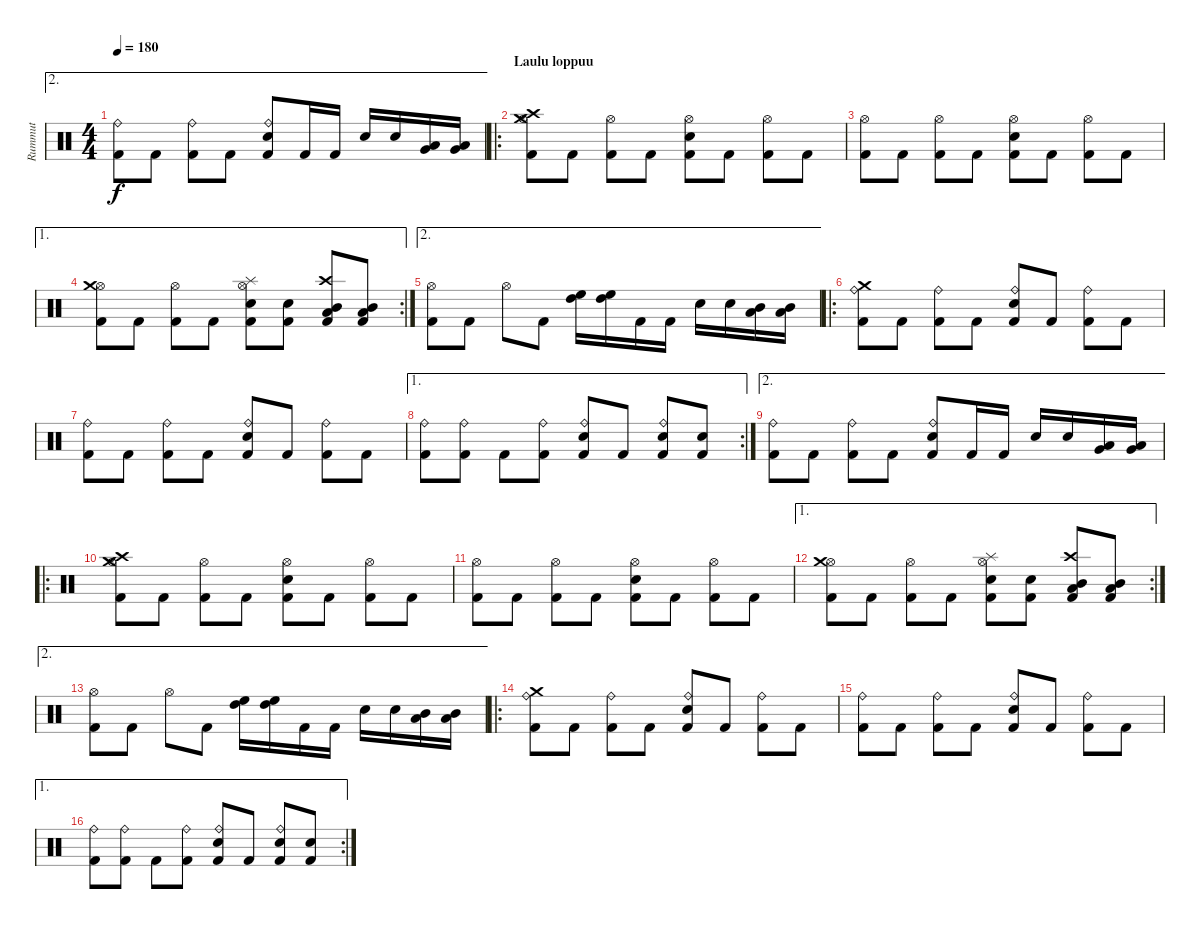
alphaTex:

\track ("Rummut" "Rummut") {instrument percussion}
\staff {score}
\articulation defaults
\ae 2
\ts (4 4)
\tempo 180
\clef neutral
\ks c
("Kick (hit) 2" "Ride (bell)").8{dy f} "Kick (hit) 2".8 ("Kick (hit) 2" "Ride (bell)").8 "Kick (hit) 2".8 ("Kick (hit) 2" "Snare (hit) 2" "Ride (bell)").8 "Kick (hit) 2".16 "Kick (hit) 2".16 "Snare (hit) 2".16 "Snare (hit) 2".16 ("Low Tom (hit)" "Very Low Tom (hit)").16 ("Low Tom (hit)" "Very Low Tom (hit)").16 |
\ro
\section ("" "Laulu loppuu")
("Kick (hit) 2" "Hi-Hat (open)" "Crash medium (hit)" "Crash high (hit)").8 "Kick (hit) 2".8 ("Kick (hit) 2" "Hi-Hat (open)").8 "Kick (hit) 2".8 ("Kick (hit) 2" "Snare (hit) 2" "Hi-Hat (open)").8 "Kick (hit) 2".8 ("Kick (hit) 2" "Hi-Hat (open)").8 "Kick (hit) 2".8 |
("Kick (hit) 2" "Hi-Hat (open)").8 "Kick (hit) 2".8 ("Kick (hit) 2" "Hi-Hat (open)").8 "Kick (hit) 2".8 ("Kick (hit) 2" "Snare (hit) 2" "Hi-Hat (open)").8 "Kick (hit) 2".8 ("Kick (hit) 2" "Hi-Hat (open)").8 "Kick (hit) 2".8 |
\ae 1
\rc 2
("Kick (hit) 2" "Hi-Hat (open)" "Crash medium (hit)").8 "Kick (hit) 2".8 ("Kick (hit) 2" "Hi-Hat (open)").8 "Kick (hit) 2".8 ("Kick (hit) 2" "Snare (hit) 2" "Hi-Hat (open)" "Splash (hit)").8 ("Kick (hit) 2" "Snare (hit) 2").8 ("Kick (hit) 2" "Mid Tom (hit)" "Low Tom (hit)" "Crash high (hit)").8 ("Kick (hit) 2" "Mid Tom (hit)" "Low Tom (hit)").8 |
\ae 2
("Kick (hit) 2" "Hi-Hat (open)").8 "Kick (hit) 2".8 "Hi-Hat (open)".8 "Kick (hit) 2".8 ("High Floor Tom (hit)" "High Tom (hit)").16 ("High Floor Tom (hit)" "High Tom (hit)").16 "Kick (hit) 2".16 "Kick (hit) 2".16 "Snare (hit) 2".16 "Snare (hit) 2".16 ("Mid Tom (hit)" "Low Tom (hit)").16 ("Mid Tom (hit)" "Low Tom (hit)").16 |
\ro
("Kick (hit) 2" "Ride (bell)" "Crash medium (hit)").8 "Kick (hit) 2".8 ("Kick (hit) 2" "Ride (bell)").8 "Kick (hit) 2".8 ("Kick (hit) 2" "Snare (hit) 2" "Ride (bell)").8 "Kick (hit) 2".8 ("Kick (hit) 2" "Ride (bell)").8 "Kick (hit) 2".8 |
("Kick (hit) 2" "Ride (bell)").8 "Kick (hit) 2".8 ("Kick (hit) 2" "Ride (bell)").8 "Kick (hit) 2".8 ("Kick (hit) 2" "Snare (hit) 2" "Ride (bell)").8 "Kick (hit) 2".8 ("Kick (hit) 2" "Ride (bell)").8 "Kick (hit) 2".8 |
\ae 1
\rc 2
("Kick (hit) 2" "Ride (bell)").8 ("Kick (hit) 2" "Ride (bell)").8 "Kick (hit) 2".8 ("Kick (hit) 2" "Ride (bell)").8 ("Kick (hit) 2" "Snare (hit) 2" "Ride (bell)").8 "Kick (hit) 2".8 ("Kick (hit) 2" "Snare (hit) 2" "Ride (bell)").8 ("Kick (hit) 2" "Snare (hit) 2").8 |
\ae 2
("Kick (hit) 2" "Ride (bell)").8 "Kick (hit) 2".8 ("Kick (hit) 2" "Ride (bell)").8 "Kick (hit) 2".8 ("Kick (hit) 2" "Snare (hit) 2" "Ride (bell)").8 "Kick (hit) 2".16 "Kick (hit) 2".16 "Snare (hit) 2".16 "Snare (hit) 2".16 ("Low Tom (hit)" "Very Low Tom (hit)").16 ("Low Tom (hit)" "Very Low Tom (hit)").16 |
\ro
("Kick (hit) 2" "Hi-Hat (open)" "Crash medium (hit)" "Crash high (hit)").8 "Kick (hit) 2".8 ("Kick (hit) 2" "Hi-Hat (open)").8 "Kick (hit) 2".8 ("Kick (hit) 2" "Snare (hit) 2" "Hi-Hat (open)").8 "Kick (hit) 2".8 ("Kick (hit) 2" "Hi-Hat (open)").8 "Kick (hit) 2".8 |
("Kick (hit) 2" "Hi-Hat (open)").8 "Kick (hit) 2".8 ("Kick (hit) 2" "Hi-Hat (open)").8 "Kick (hit) 2".8 ("Kick (hit) 2" "Snare (hit) 2" "Hi-Hat (open)").8 "Kick (hit) 2".8 ("Kick (hit) 2" "Hi-Hat (open)").8 "Kick (hit) 2".8 |
\ae 1
\rc 2
("Kick (hit) 2" "Hi-Hat (open)" "Crash medium (hit)").8 "Kick (hit) 2".8 ("Kick (hit) 2" "Hi-Hat (open)").8 "Kick (hit) 2".8 ("Kick (hit) 2" "Snare (hit) 2" "Hi-Hat (open)" "Splash (hit)").8 ("Kick (hit) 2" "Snare (hit) 2").8 ("Kick (hit) 2" "Mid Tom (hit)" "Low Tom (hit)" "Crash high (hit)").8 ("Kick (hit) 2" "Mid Tom (hit)" "Low Tom (hit)").8 |
\ae 2
("Kick (hit) 2" "Hi-Hat (open)").8 "Kick (hit) 2".8 "Hi-Hat (open)".8 "Kick (hit) 2".8 ("High Floor Tom (hit)" "High Tom (hit)").16 ("High Floor Tom (hit)" "High Tom (hit)").16 "Kick (hit) 2".16 "Kick (hit) 2".16 "Snare (hit) 2".16 "Snare (hit) 2".16 ("Mid Tom (hit)" "Low Tom (hit)").16 ("Mid Tom (hit)" "Low Tom (hit)").16 |
\ro
("Kick (hit) 2" "Ride (bell)" "Crash medium (hit)").8 "Kick (hit) 2".8 ("Kick (hit) 2" "Ride (bell)").8 "Kick (hit) 2".8 ("Kick (hit) 2" "Snare (hit) 2" "Ride (bell)").8 "Kick (hit) 2".8 ("Kick (hit) 2" "Ride (bell)").8 "Kick (hit) 2".8 |
("Kick (hit) 2" "Ride (bell)").8 "Kick (hit) 2".8 ("Kick (hit) 2" "Ride (bell)").8 "Kick (hit) 2".8 ("Kick (hit) 2" "Snare (hit) 2" "Ride (bell)").8 "Kick (hit) 2".8 ("Kick (hit) 2" "Ride (bell)").8 "Kick (hit) 2".8 |
\ae 1
\rc 2
("Kick (hit) 2" "Ride (bell)").8 ("Kick (hit) 2" "Ride (bell)").8 "Kick (hit) 2".8 ("Kick (hit) 2" "Ride (bell)").8 ("Kick (hit) 2" "Snare (hit) 2" "Ride (bell)").8 "Kick (hit) 2".8 ("Kick (hit) 2" "Snare (hit) 2" "Ride (bell)").8 ("Kick (hit) 2" "Snare (hit) 2").8
